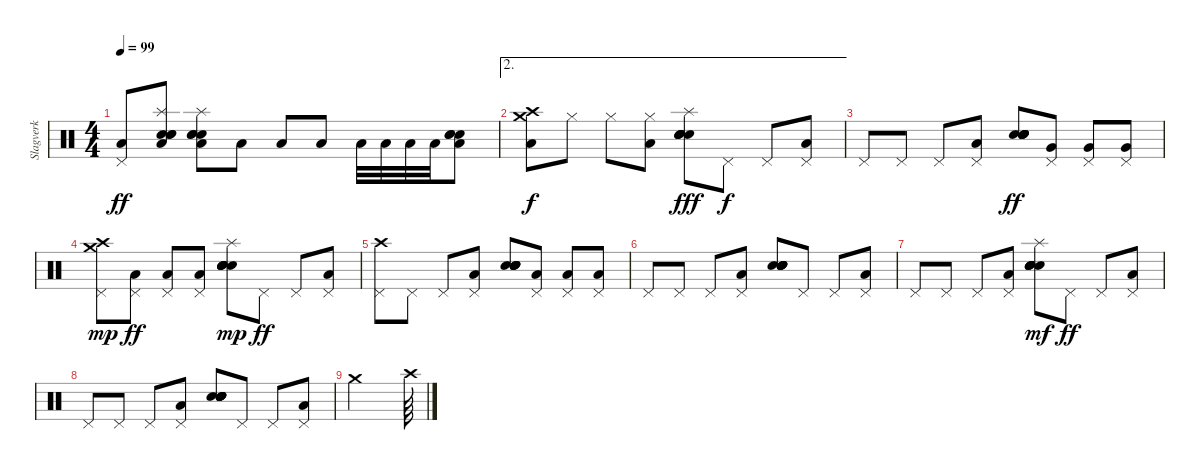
\track ("Slagverk" "Slagverk") {instrument percussion}
\staff {score}
\articulation defaults
\ts (4 4)
\tempo 99
\clef neutral
\ks c
("Pedal Hi-Hat (hit)" "Low Floor Tom (hit)").8{dy ff} ("Splash (hit)" "Snare (hit) 2" "Snare (hit) 2" "Low Floor Tom (hit)" "Snare (hit) 2").8 ("Splash (hit)" "Snare (hit) 2" "Snare (hit) 2" "Low Floor Tom (hit)" "Snare (hit) 2").8 "Low Floor Tom (hit)".8 "Low Floor Tom (hit)".8 "Low Floor Tom (hit)".8 "Low Floor Tom (hit)".32 "Low Floor Tom (hit)".32 "Low Floor Tom (hit)".32 "Low Floor Tom (hit)".32 ("Snare (hit) 2" "Snare (hit) 2" "Low Floor Tom (hit)" "Electric Snare (hit)").8 |
\ae 2
("Crash medium (hit)" "Crash high (hit)" "Low Floor Tom (hit)").8{dy f} "Hi-Hat (closed)".8 "Hi-Hat (closed)".8 ("Hi-Hat (closed)" "Low Floor Tom (hit)").8 ("Snare (hit) 2" "Snare (hit) 2" "Snare (hit) 2" "Electric Snare (hit)" "Snare (hit) 2" "Splash (hit)").8{dy fff} "Pedal Hi-Hat (hit)".8{dy f} "Pedal Hi-Hat (hit)".8 ("Pedal Hi-Hat (hit)" "Low Floor Tom (hit)").8 |
"Pedal Hi-Hat (hit)".8 "Pedal Hi-Hat (hit)".8 "Pedal Hi-Hat (hit)".8 ("Pedal Hi-Hat (hit)" "Low Floor Tom (hit)").8 ("Snare (hit) 2" "Snare (hit) 2" "Snare (hit) 2" "Snare (hit) 2" "Electric Snare (hit)" "Snare (hit) 2").8{dy ff} ("Pedal Hi-Hat (hit)" "Very Low Tom (hit)").8 ("Pedal Hi-Hat (hit)" "Very Low Tom (hit)").8 ("Pedal Hi-Hat (hit)" "Very Low Tom (hit)").8 |
("Pedal Hi-Hat (hit)" "Crash high (hit)" "Crash medium (hit)").8{dy mp} ("Pedal Hi-Hat (hit)" "Low Floor Tom (hit)").8{dy ff} ("Pedal Hi-Hat (hit)" "Low Floor Tom (hit)").8 ("Pedal Hi-Hat (hit)" "Low Floor Tom (hit)").8 ("Snare (hit) 2" "Snare (hit) 2" "Snare (hit) 2" "Electric Snare (hit)" "Snare (hit) 2" "Splash (hit)").8{dy mp} "Pedal Hi-Hat (hit)".8{dy ff} "Pedal Hi-Hat (hit)".8 ("Pedal Hi-Hat (hit)" "Low Floor Tom (hit)").8 |
("Pedal Hi-Hat (hit)" "Crash high (hit)").8 "Pedal Hi-Hat (hit)".8 "Pedal Hi-Hat (hit)".8 ("Pedal Hi-Hat (hit)" "Low Floor Tom (hit)").8 ("Snare (hit) 2" "Snare (hit) 2" "Snare (hit) 2" "Snare (hit) 2" "Electric Snare (hit)" "Snare (hit) 2").8 ("Pedal Hi-Hat (hit)" "Low Floor Tom (hit)").8 ("Pedal Hi-Hat (hit)" "Low Floor Tom (hit)").8 ("Pedal Hi-Hat (hit)" "Low Floor Tom (hit)").8 |
"Pedal Hi-Hat (hit)".8 "Pedal Hi-Hat (hit)".8 "Pedal Hi-Hat (hit)".8 ("Pedal Hi-Hat (hit)" "Low Floor Tom (hit)").8 ("Snare (hit) 2" "Snare (hit) 2" "Snare (hit) 2" "Electric Snare (hit)" "Snare (hit) 2" "Snare (hit) 2").8 "Pedal Hi-Hat (hit)".8 "Pedal Hi-Hat (hit)".8 ("Pedal Hi-Hat (hit)" "Low Floor Tom (hit)").8 |
"Pedal Hi-Hat (hit)".8 "Pedal Hi-Hat (hit)".8 "Pedal Hi-Hat (hit)".8 ("Pedal Hi-Hat (hit)" "Low Floor Tom (hit)").8 ("Snare (hit) 2" "Snare (hit) 2" "Snare (hit) 2" "Electric Snare (hit)" "Snare (hit) 2" "Splash (hit)").8{dy mf} "Pedal Hi-Hat (hit)".8{dy ff} "Pedal Hi-Hat (hit)".8 ("Pedal Hi-Hat (hit)" "Low Floor Tom (hit)").8 |
"Pedal Hi-Hat (hit)".8 "Pedal Hi-Hat (hit)".8 "Pedal Hi-Hat (hit)".8 ("Pedal Hi-Hat (hit)" "Low Floor Tom (hit)").8 ("Snare (hit) 2" "Snare (hit) 2" "Snare (hit) 2" "Electric Snare (hit)" "Snare (hit) 2" "Snare (hit) 2").8 "Pedal Hi-Hat (hit)".8 "Pedal Hi-Hat (hit)".8 ("Pedal Hi-Hat (hit)" "Low Floor Tom (hit)").8 |
"Crash medium (hit)".2 "Crash high (hit)".64
